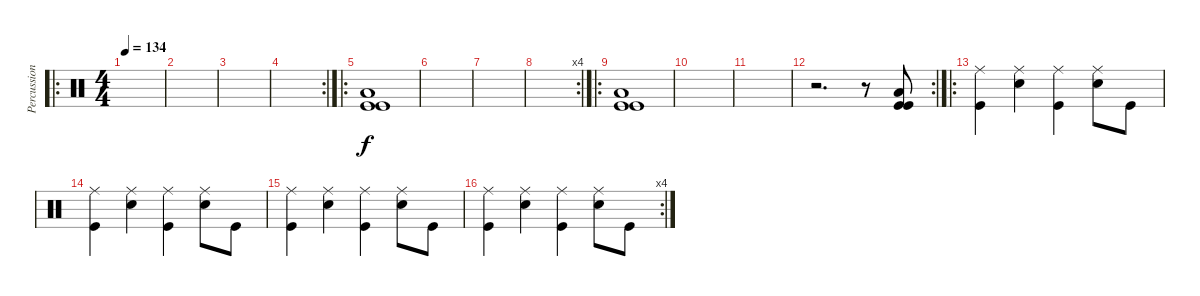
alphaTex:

\track ("Percussion" "Percussion") {instrument percussion}
\staff {score}
\articulation defaults
\ro
\ts (4 4)
\tempo 134
\clef neutral
\ks c
|
|
|
\rc 2
|
\ro
("Low Floor Tom (hit)" "Kick (hit)" "Kick (hit)").1 |
|
|
\rc 4
|
\ro
("Low Floor Tom (hit)" "Kick (hit)" "Kick (hit)").1 |
|
|
\rc 2
r.2{d} r.8 ("Low Floor Tom (hit)" "Kick (hit)" "Kick (hit)").8 |
\ro
("Ride (middle)" "Kick (hit)").4 ("Ride (middle)" "Snare (hit) 2").4 ("Ride (middle)" "Kick (hit)").4 ("Ride (middle)" "Snare (hit) 2").8 "Kick (hit)".8 |
("Ride (middle)" "Kick (hit)").4 ("Ride (middle)" "Snare (hit) 2").4 ("Ride (middle)" "Kick (hit)").4 ("Ride (middle)" "Snare (hit) 2").8 "Kick (hit)".8 |
("Ride (middle)" "Kick (hit)").4 ("Ride (middle)" "Snare (hit) 2").4 ("Ride (middle)" "Kick (hit)").4 ("Ride (middle)" "Snare (hit) 2").8 "Kick (hit)".8 |
\rc 4
("Ride (middle)" "Kick (hit)").4 ("Ride (middle)" "Snare (hit) 2").4 ("Ride (middle)" "Kick (hit)").4 ("Ride (middle)" "Snare (hit) 2").8 "Kick (hit)".8
